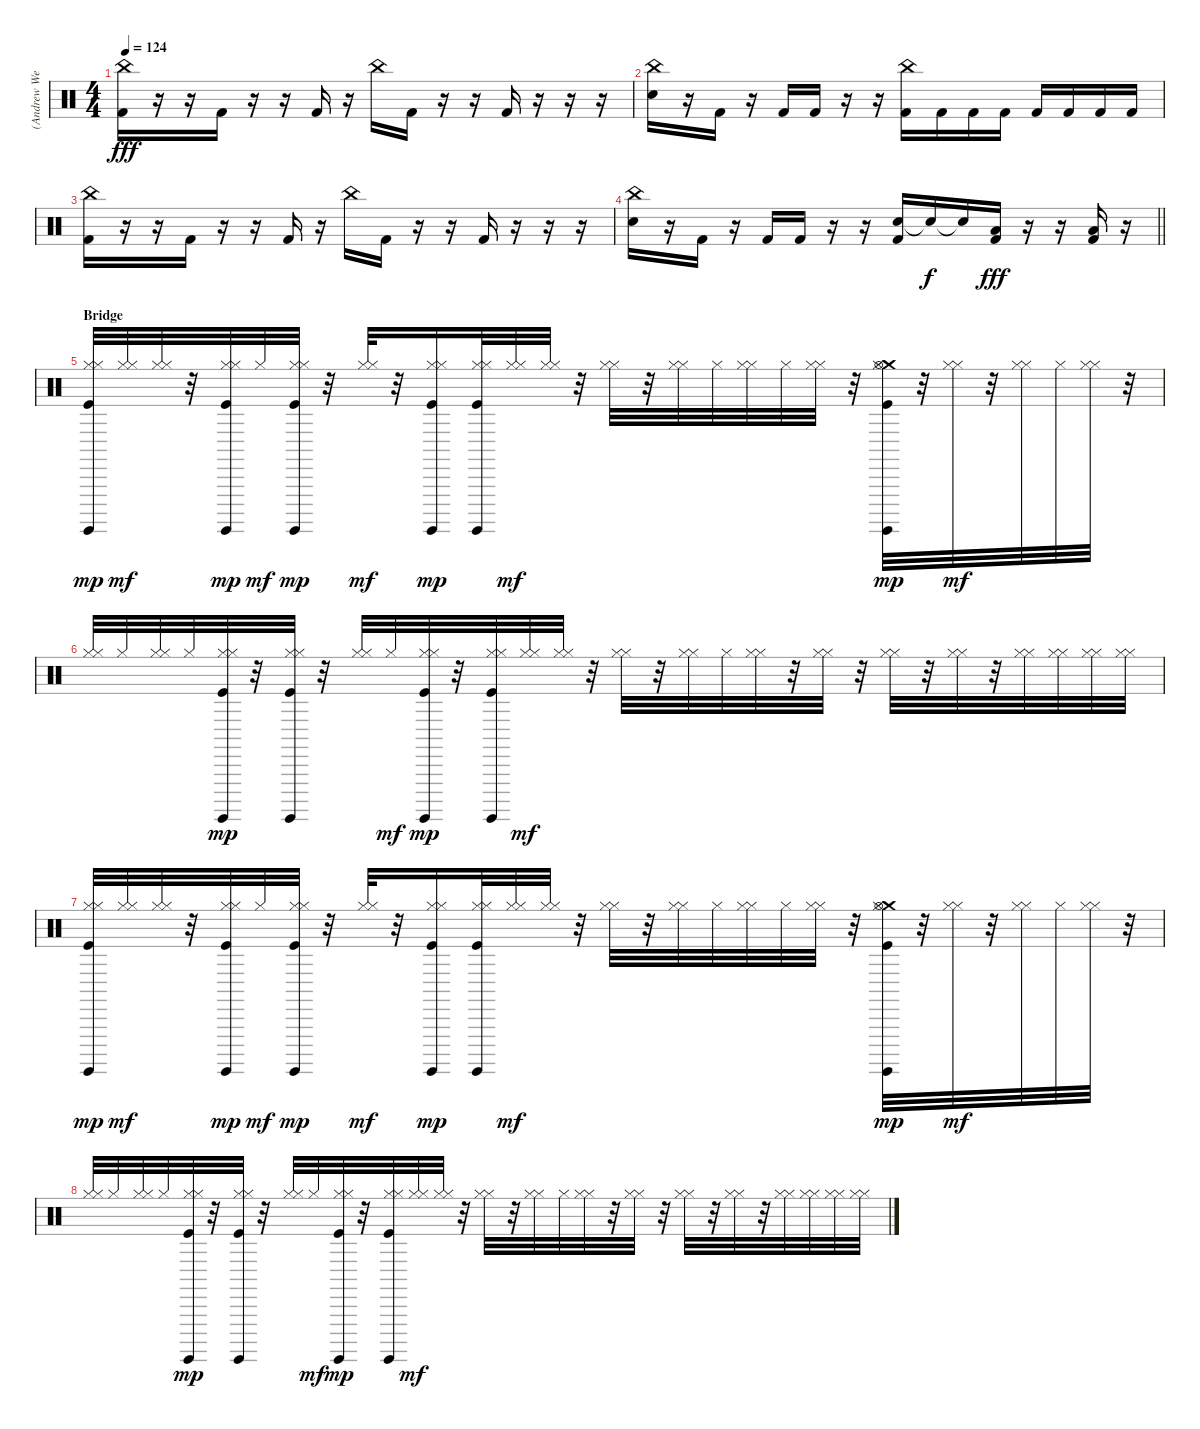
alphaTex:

\track ("(Andrew Wetzel) Drums" "(Andrew We") {instrument percussion}
\staff {score}
\articulation defaults
\ts (4 4)
\tempo 124
\clef neutral
\ks c
("China (hit)" "Kick (hit) 2").16{dy fff} r.16 r.16 "Kick (hit) 2".16 r.16 r.16 "Kick (hit) 2".16 r.16 "China (hit)".16 "Kick (hit) 2".16 r.16 r.16 "Kick (hit) 2".16 r.16 r.16 r.16 |
("China (hit)" "Electric Snare (hit)").16 r.16 "Kick (hit) 2".16 r.16 "Kick (hit) 2".16 "Kick (hit) 2".16 r.16 r.16 ("China (hit)" "Kick (hit) 2").16 "Kick (hit) 2".16 "Kick (hit) 2".16 "Kick (hit) 2".16 "Kick (hit) 2".16 "Kick (hit) 2".16 "Kick (hit) 2".16 "Kick (hit) 2".16 |
("China (hit)" "Kick (hit) 2").16 r.16 r.16 "Kick (hit) 2".16 r.16 r.16 "Kick (hit) 2".16 r.16 "China (hit)".16 "Kick (hit) 2".16 r.16 r.16 "Kick (hit) 2".16 r.16 r.16 r.16 |
\barLineRight lightlight
("China (hit)" "Electric Snare (hit)").16 r.16 "Kick (hit) 2".16 r.16 "Kick (hit) 2".16 "Kick (hit) 2".16 r.16 r.16 ("Electric Snare (hit)" "Kick (hit) 2").16 "Snare (hit)"{t}.16{dy f} "Snare (hit)"{t}.16 ("Low Floor Tom (hit)" "Kick (hit) 2").16{dy fff} r.16 r.16 ("Low Floor Tom (hit)" "Kick (hit) 2").16 r.16 |
\section ("" "Bridge")
("Hi-Hat (closed)" "Hi-Hat (closed)" "Kick (hit)" "Surdo (hit)").32{dy mp volume 6} ("Hi-Hat (closed)" "Hi-Hat (closed)").32{dy mf volume 11} ("Hi-Hat (closed)" "Hi-Hat (closed)").32 r.32 ("Hi-Hat (closed)" "Hi-Hat (closed)" "Kick (hit)" "Surdo (hit)").32{dy mp} "Hi-Hat (closed)".32{dy mf} ("Hi-Hat (closed)" "Hi-Hat (closed)" "Kick (hit)" "Surdo (hit)").32{dy mp} r.32 ("Hi-Hat (closed)" "Hi-Hat (closed)").32{dy mf} r.32 ("Hi-Hat (closed)" "Hi-Hat (closed)" "Kick (hit)" "Surdo (hit)").16{dy mp} ("Hi-Hat (closed)" "Hi-Hat (closed)" "Kick (hit)" "Surdo (hit)").32 ("Hi-Hat (closed)" "Hi-Hat (closed)").32{dy mf} ("Hi-Hat (closed)" "Hi-Hat (closed)").32 r.32 ("Hi-Hat (closed)" "Hi-Hat (closed)").32 r.32 ("Hi-Hat (closed)" "Hi-Hat (closed)").32 "Hi-Hat (closed)".32 ("Hi-Hat (closed)" "Hi-Hat (closed)").32 "Hi-Hat (closed)".32 ("Hi-Hat (closed)" "Hi-Hat (closed)").32 r.32 ("Crash medium (hit)" "Hi-Hat (open)" "Hi-Hat (closed)" "Kick (hit)" "Surdo (hit)").32{dy mp} r.32 ("Hi-Hat (closed)" "Hi-Hat (closed)").32{dy mf} r.32 ("Hi-Hat (closed)" "Hi-Hat (closed)").32 "Hi-Hat (closed)".32 ("Hi-Hat (closed)" "Hi-Hat (closed)").32 r.32 |
("Hi-Hat (closed)" "Hi-Hat (closed)").32 "Hi-Hat (closed)".32 ("Hi-Hat (closed)" "Hi-Hat (closed)").32 "Hi-Hat (closed)".32 ("Hi-Hat (closed)" "Hi-Hat (closed)" "Kick (hit)" "Surdo (hit)").32{dy mp} r.32 ("Hi-Hat (closed)" "Hi-Hat (closed)" "Kick (hit)" "Surdo (hit)").32 r.32 ("Hi-Hat (closed)" "Hi-Hat (closed)").32 "Hi-Hat (closed)".32{dy mf} ("Hi-Hat (closed)" "Hi-Hat (closed)" "Kick (hit)" "Surdo (hit)").32{dy mp} r.32 ("Hi-Hat (closed)" "Hi-Hat (closed)" "Kick (hit)" "Surdo (hit)").32 ("Hi-Hat (closed)" "Hi-Hat (closed)").32{dy mf} ("Hi-Hat (closed)" "Hi-Hat (closed)").32 r.32 ("Hi-Hat (closed)" "Hi-Hat (closed)").32 r.32 ("Hi-Hat (closed)" "Hi-Hat (closed)").32 "Hi-Hat (closed)".32 ("Hi-Hat (closed)" "Hi-Hat (closed)").32 r.32 ("Hi-Hat (closed)" "Hi-Hat (closed)").32 r.32 ("Hi-Hat (closed)" "Hi-Hat (closed)").32 r.32 ("Hi-Hat (closed)" "Hi-Hat (closed)").32 r.32 ("Hi-Hat (closed)" "Hi-Hat (closed)").32 ("Hi-Hat (closed)" "Hi-Hat (closed)").32 ("Hi-Hat (closed)" "Hi-Hat (closed)").32 ("Hi-Hat (closed)" "Hi-Hat (closed)").32 |
("Hi-Hat (closed)" "Hi-Hat (closed)" "Kick (hit)" "Surdo (hit)").32{dy mp} ("Hi-Hat (closed)" "Hi-Hat (closed)").32{dy mf} ("Hi-Hat (closed)" "Hi-Hat (closed)").32 r.32 ("Hi-Hat (closed)" "Hi-Hat (closed)" "Kick (hit)" "Surdo (hit)").32{dy mp} "Hi-Hat (closed)".32{dy mf} ("Hi-Hat (closed)" "Hi-Hat (closed)" "Kick (hit)" "Surdo (hit)").32{dy mp} r.32 ("Hi-Hat (closed)" "Hi-Hat (closed)").32{dy mf} r.32 ("Hi-Hat (closed)" "Hi-Hat (closed)" "Kick (hit)" "Surdo (hit)").16{dy mp} ("Hi-Hat (closed)" "Hi-Hat (closed)" "Kick (hit)" "Surdo (hit)").32 ("Hi-Hat (closed)" "Hi-Hat (closed)").32{dy mf} ("Hi-Hat (closed)" "Hi-Hat (closed)").32 r.32 ("Hi-Hat (closed)" "Hi-Hat (closed)").32 r.32 ("Hi-Hat (closed)" "Hi-Hat (closed)").32 "Hi-Hat (closed)".32 ("Hi-Hat (closed)" "Hi-Hat (closed)").32 "Hi-Hat (closed)".32 ("Hi-Hat (closed)" "Hi-Hat (closed)").32 r.32 ("Crash medium (hit)" "Hi-Hat (open)" "Hi-Hat (closed)" "Kick (hit)" "Surdo (hit)").32{dy mp} r.32 ("Hi-Hat (closed)" "Hi-Hat (closed)").32{dy mf} r.32 ("Hi-Hat (closed)" "Hi-Hat (closed)").32 "Hi-Hat (closed)".32 ("Hi-Hat (closed)" "Hi-Hat (closed)").32 r.32 |
("Hi-Hat (closed)" "Hi-Hat (closed)").32 "Hi-Hat (closed)".32 ("Hi-Hat (closed)" "Hi-Hat (closed)").32 "Hi-Hat (closed)".32 ("Hi-Hat (closed)" "Hi-Hat (closed)" "Kick (hit)" "Surdo (hit)").32{dy mp} r.32 ("Hi-Hat (closed)" "Hi-Hat (closed)" "Kick (hit)" "Surdo (hit)").32 r.32 ("Hi-Hat (closed)" "Hi-Hat (closed)").32 "Hi-Hat (closed)".32{dy mf} ("Hi-Hat (closed)" "Hi-Hat (closed)" "Kick (hit)" "Surdo (hit)").32{dy mp} r.32 ("Hi-Hat (closed)" "Hi-Hat (closed)" "Kick (hit)" "Surdo (hit)").32 ("Hi-Hat (closed)" "Hi-Hat (closed)").32{dy mf} ("Hi-Hat (closed)" "Hi-Hat (closed)").32 r.32 ("Hi-Hat (closed)" "Hi-Hat (closed)").32 r.32 ("Hi-Hat (closed)" "Hi-Hat (closed)").32 "Hi-Hat (closed)".32 ("Hi-Hat (closed)" "Hi-Hat (closed)").32 r.32 ("Hi-Hat (closed)" "Hi-Hat (closed)").32 r.32 ("Hi-Hat (closed)" "Hi-Hat (closed)").32 r.32 ("Hi-Hat (closed)" "Hi-Hat (closed)").32 r.32 ("Hi-Hat (closed)" "Hi-Hat (closed)").32 ("Hi-Hat (closed)" "Hi-Hat (closed)").32 ("Hi-Hat (closed)" "Hi-Hat (closed)").32 ("Hi-Hat (closed)" "Hi-Hat (closed)").32
